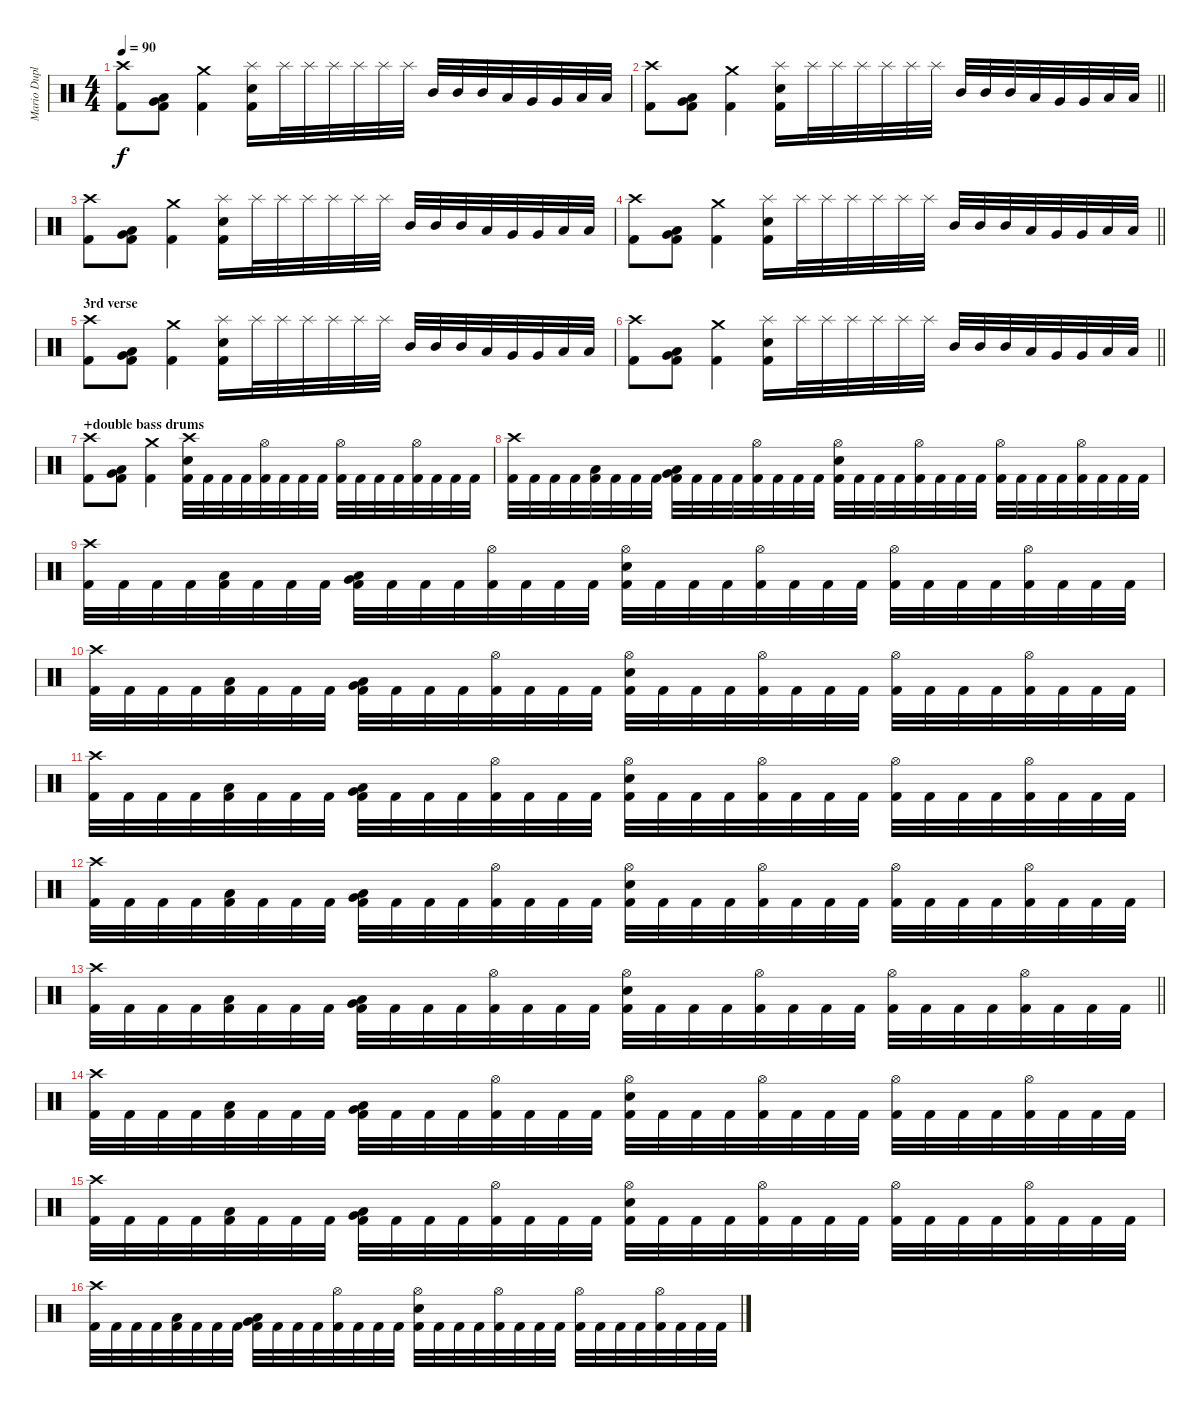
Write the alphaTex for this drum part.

\track ("Mario Duplantier" "Mario Dupl") {instrument percussion}
\staff {score}
\articulation defaults
\ts (4 4)
\tempo 90
\clef neutral
\ks c
("Crash high (hit)" "Kick (hit) 2").8{dy f} ("Very Low Tom (hit)" "Low Floor Tom (hit)" "Kick (hit) 2").8 ("Crash medium (hit)" "Kick (hit) 2").4 ("Splash (hit)" "Electric Snare (hit)" "Kick (hit) 2").16 "Splash (hit)".32 "Splash (hit)".32 "Splash (hit)".32 "Splash (hit)".32 "Splash (hit)".32 "Splash (hit)".32 "Mid Tom (hit)".32 "Mid Tom (hit)".32 "Mid Tom (hit)".32 "Low Tom (hit)".32 "Very Low Tom (hit)".32 "Very Low Tom (hit)".32 "Low Floor Tom (hit)".32 "Low Floor Tom (hit)".32 |
\barLineRight lightlight
("Crash high (hit)" "Kick (hit) 2").8 ("Very Low Tom (hit)" "Low Floor Tom (hit)" "Kick (hit) 2").8 ("Crash medium (hit)" "Kick (hit) 2").4 ("Splash (hit)" "Electric Snare (hit)" "Kick (hit) 2").16 "Splash (hit)".32 "Splash (hit)".32 "Splash (hit)".32 "Splash (hit)".32 "Splash (hit)".32 "Splash (hit)".32 "Mid Tom (hit)".32 "Mid Tom (hit)".32 "Mid Tom (hit)".32 "Low Tom (hit)".32 "Very Low Tom (hit)".32 "Very Low Tom (hit)".32 "Low Floor Tom (hit)".32 "Low Floor Tom (hit)".32 |
("Crash high (hit)" "Kick (hit) 2").8 ("Very Low Tom (hit)" "Low Floor Tom (hit)" "Kick (hit) 2").8 ("Crash medium (hit)" "Kick (hit) 2").4 ("Splash (hit)" "Electric Snare (hit)" "Kick (hit) 2").16 "Splash (hit)".32 "Splash (hit)".32 "Splash (hit)".32 "Splash (hit)".32 "Splash (hit)".32 "Splash (hit)".32 "Mid Tom (hit)".32 "Mid Tom (hit)".32 "Mid Tom (hit)".32 "Low Tom (hit)".32 "Very Low Tom (hit)".32 "Very Low Tom (hit)".32 "Low Floor Tom (hit)".32 "Low Floor Tom (hit)".32 |
\barLineRight lightlight
("Crash high (hit)" "Kick (hit) 2").8 ("Very Low Tom (hit)" "Low Floor Tom (hit)" "Kick (hit) 2").8 ("Crash medium (hit)" "Kick (hit) 2").4 ("Splash (hit)" "Electric Snare (hit)" "Kick (hit) 2").16 "Splash (hit)".32 "Splash (hit)".32 "Splash (hit)".32 "Splash (hit)".32 "Splash (hit)".32 "Splash (hit)".32 "Mid Tom (hit)".32 "Mid Tom (hit)".32 "Mid Tom (hit)".32 "Low Tom (hit)".32 "Very Low Tom (hit)".32 "Very Low Tom (hit)".32 "Low Floor Tom (hit)".32 "Low Floor Tom (hit)".32 |
\section ("" "3rd verse")
("Crash high (hit)" "Kick (hit) 2").8 ("Very Low Tom (hit)" "Low Floor Tom (hit)" "Kick (hit) 2").8 ("Crash medium (hit)" "Kick (hit) 2").4 ("Splash (hit)" "Electric Snare (hit)" "Kick (hit) 2").16 "Splash (hit)".32 "Splash (hit)".32 "Splash (hit)".32 "Splash (hit)".32 "Splash (hit)".32 "Splash (hit)".32 "Mid Tom (hit)".32 "Mid Tom (hit)".32 "Mid Tom (hit)".32 "Low Tom (hit)".32 "Very Low Tom (hit)".32 "Very Low Tom (hit)".32 "Low Floor Tom (hit)".32 "Low Floor Tom (hit)".32 |
\barLineRight lightlight
("Crash high (hit)" "Kick (hit) 2").8 ("Very Low Tom (hit)" "Low Floor Tom (hit)" "Kick (hit) 2").8 ("Crash medium (hit)" "Kick (hit) 2").4 ("Splash (hit)" "Electric Snare (hit)" "Kick (hit) 2").16 "Splash (hit)".32 "Splash (hit)".32 "Splash (hit)".32 "Splash (hit)".32 "Splash (hit)".32 "Splash (hit)".32 "Mid Tom (hit)".32 "Mid Tom (hit)".32 "Mid Tom (hit)".32 "Low Tom (hit)".32 "Very Low Tom (hit)".32 "Very Low Tom (hit)".32 "Low Floor Tom (hit)".32 "Low Floor Tom (hit)".32 |
\section ("" "+double bass drums")
("Crash high (hit)" "Kick (hit) 2").8 ("Very Low Tom (hit)" "Low Floor Tom (hit)" "Kick (hit) 2").8 ("Crash medium (hit)" "Kick (hit) 2").4 ("Crash high (hit)" "Electric Snare (hit)" "Kick (hit) 2").32 "Kick (hit) 2".32 "Kick (hit) 2".32 "Kick (hit) 2".32 ("Hi-Hat (open)" "Kick (hit) 2").32 "Kick (hit) 2".32 "Kick (hit) 2".32 "Kick (hit) 2".32 ("Hi-Hat (open)" "Kick (hit) 2").32 "Kick (hit) 2".32 "Kick (hit) 2".32 "Kick (hit) 2".32 ("Hi-Hat (open)" "Kick (hit) 2").32 "Kick (hit) 2".32 "Kick (hit) 2".32 "Kick (hit) 2".32 |
("Crash high (hit)" "Kick (hit) 2").32 "Kick (hit) 2".32 "Kick (hit) 2".32 "Kick (hit) 2".32 ("Low Tom (hit)" "Kick (hit) 2").32 "Kick (hit) 2".32 "Kick (hit) 2".32 "Kick (hit) 2".32 ("Very Low Tom (hit)" "Low Floor Tom (hit)" "Kick (hit) 2").32 "Kick (hit) 2".32 "Kick (hit) 2".32 "Kick (hit) 2".32 ("Hi-Hat (open)" "Kick (hit) 2").32 "Kick (hit) 2".32 "Kick (hit) 2".32 "Kick (hit) 2".32 ("Hi-Hat (open)" "Electric Snare (hit)" "Kick (hit) 2").32 "Kick (hit) 2".32 "Kick (hit) 2".32 "Kick (hit) 2".32 ("Hi-Hat (open)" "Kick (hit) 2").32 "Kick (hit) 2".32 "Kick (hit) 2".32 "Kick (hit) 2".32 ("Hi-Hat (open)" "Kick (hit) 2").32 "Kick (hit) 2".32 "Kick (hit) 2".32 "Kick (hit) 2".32 ("Hi-Hat (open)" "Kick (hit) 2").32 "Kick (hit) 2".32 "Kick (hit) 2".32 "Kick (hit) 2".32 |
("Crash high (hit)" "Kick (hit) 2").32 "Kick (hit) 2".32 "Kick (hit) 2".32 "Kick (hit) 2".32 ("Low Tom (hit)" "Kick (hit) 2").32 "Kick (hit) 2".32 "Kick (hit) 2".32 "Kick (hit) 2".32 ("Very Low Tom (hit)" "Low Floor Tom (hit)" "Kick (hit) 2").32 "Kick (hit) 2".32 "Kick (hit) 2".32 "Kick (hit) 2".32 ("Hi-Hat (open)" "Kick (hit) 2").32 "Kick (hit) 2".32 "Kick (hit) 2".32 "Kick (hit) 2".32 ("Hi-Hat (open)" "Electric Snare (hit)" "Kick (hit) 2").32 "Kick (hit) 2".32 "Kick (hit) 2".32 "Kick (hit) 2".32 ("Hi-Hat (open)" "Kick (hit) 2").32 "Kick (hit) 2".32 "Kick (hit) 2".32 "Kick (hit) 2".32 ("Hi-Hat (open)" "Kick (hit) 2").32 "Kick (hit) 2".32 "Kick (hit) 2".32 "Kick (hit) 2".32 ("Hi-Hat (open)" "Kick (hit) 2").32 "Kick (hit) 2".32 "Kick (hit) 2".32 "Kick (hit) 2".32 |
("Crash high (hit)" "Kick (hit) 2").32 "Kick (hit) 2".32 "Kick (hit) 2".32 "Kick (hit) 2".32 ("Low Tom (hit)" "Kick (hit) 2").32 "Kick (hit) 2".32 "Kick (hit) 2".32 "Kick (hit) 2".32 ("Very Low Tom (hit)" "Low Floor Tom (hit)" "Kick (hit) 2").32 "Kick (hit) 2".32 "Kick (hit) 2".32 "Kick (hit) 2".32 ("Hi-Hat (open)" "Kick (hit) 2").32 "Kick (hit) 2".32 "Kick (hit) 2".32 "Kick (hit) 2".32 ("Hi-Hat (open)" "Electric Snare (hit)" "Kick (hit) 2").32 "Kick (hit) 2".32 "Kick (hit) 2".32 "Kick (hit) 2".32 ("Hi-Hat (open)" "Kick (hit) 2").32 "Kick (hit) 2".32 "Kick (hit) 2".32 "Kick (hit) 2".32 ("Hi-Hat (open)" "Kick (hit) 2").32 "Kick (hit) 2".32 "Kick (hit) 2".32 "Kick (hit) 2".32 ("Hi-Hat (open)" "Kick (hit) 2").32 "Kick (hit) 2".32 "Kick (hit) 2".32 "Kick (hit) 2".32 |
("Crash high (hit)" "Kick (hit) 2").32 "Kick (hit) 2".32 "Kick (hit) 2".32 "Kick (hit) 2".32 ("Low Tom (hit)" "Kick (hit) 2").32 "Kick (hit) 2".32 "Kick (hit) 2".32 "Kick (hit) 2".32 ("Very Low Tom (hit)" "Low Floor Tom (hit)" "Kick (hit) 2").32 "Kick (hit) 2".32 "Kick (hit) 2".32 "Kick (hit) 2".32 ("Hi-Hat (open)" "Kick (hit) 2").32 "Kick (hit) 2".32 "Kick (hit) 2".32 "Kick (hit) 2".32 ("Hi-Hat (open)" "Electric Snare (hit)" "Kick (hit) 2").32 "Kick (hit) 2".32 "Kick (hit) 2".32 "Kick (hit) 2".32 ("Hi-Hat (open)" "Kick (hit) 2").32 "Kick (hit) 2".32 "Kick (hit) 2".32 "Kick (hit) 2".32 ("Hi-Hat (open)" "Kick (hit) 2").32 "Kick (hit) 2".32 "Kick (hit) 2".32 "Kick (hit) 2".32 ("Hi-Hat (open)" "Kick (hit) 2").32 "Kick (hit) 2".32 "Kick (hit) 2".32 "Kick (hit) 2".32 |
("Crash high (hit)" "Kick (hit) 2").32 "Kick (hit) 2".32 "Kick (hit) 2".32 "Kick (hit) 2".32 ("Low Tom (hit)" "Kick (hit) 2").32 "Kick (hit) 2".32 "Kick (hit) 2".32 "Kick (hit) 2".32 ("Very Low Tom (hit)" "Low Floor Tom (hit)" "Kick (hit) 2").32 "Kick (hit) 2".32 "Kick (hit) 2".32 "Kick (hit) 2".32 ("Hi-Hat (open)" "Kick (hit) 2").32 "Kick (hit) 2".32 "Kick (hit) 2".32 "Kick (hit) 2".32 ("Hi-Hat (open)" "Electric Snare (hit)" "Kick (hit) 2").32 "Kick (hit) 2".32 "Kick (hit) 2".32 "Kick (hit) 2".32 ("Hi-Hat (open)" "Kick (hit) 2").32 "Kick (hit) 2".32 "Kick (hit) 2".32 "Kick (hit) 2".32 ("Hi-Hat (open)" "Kick (hit) 2").32 "Kick (hit) 2".32 "Kick (hit) 2".32 "Kick (hit) 2".32 ("Hi-Hat (open)" "Kick (hit) 2").32 "Kick (hit) 2".32 "Kick (hit) 2".32 "Kick (hit) 2".32 |
\barLineRight lightlight
("Crash high (hit)" "Kick (hit) 2").32 "Kick (hit) 2".32 "Kick (hit) 2".32 "Kick (hit) 2".32 ("Low Tom (hit)" "Kick (hit) 2").32 "Kick (hit) 2".32 "Kick (hit) 2".32 "Kick (hit) 2".32 ("Very Low Tom (hit)" "Low Floor Tom (hit)" "Kick (hit) 2").32 "Kick (hit) 2".32 "Kick (hit) 2".32 "Kick (hit) 2".32 ("Hi-Hat (open)" "Kick (hit) 2").32 "Kick (hit) 2".32 "Kick (hit) 2".32 "Kick (hit) 2".32 ("Hi-Hat (open)" "Electric Snare (hit)" "Kick (hit) 2").32 "Kick (hit) 2".32 "Kick (hit) 2".32 "Kick (hit) 2".32 ("Hi-Hat (open)" "Kick (hit) 2").32 "Kick (hit) 2".32 "Kick (hit) 2".32 "Kick (hit) 2".32 ("Hi-Hat (open)" "Kick (hit) 2").32 "Kick (hit) 2".32 "Kick (hit) 2".32 "Kick (hit) 2".32 ("Hi-Hat (open)" "Kick (hit) 2").32 "Kick (hit) 2".32 "Kick (hit) 2".32 "Kick (hit) 2".32 |
("Crash high (hit)" "Kick (hit) 2").32 "Kick (hit) 2".32 "Kick (hit) 2".32 "Kick (hit) 2".32 ("Low Tom (hit)" "Kick (hit) 2").32 "Kick (hit) 2".32 "Kick (hit) 2".32 "Kick (hit) 2".32 ("Very Low Tom (hit)" "Low Floor Tom (hit)" "Kick (hit) 2").32 "Kick (hit) 2".32 "Kick (hit) 2".32 "Kick (hit) 2".32 ("Hi-Hat (open)" "Kick (hit) 2").32 "Kick (hit) 2".32 "Kick (hit) 2".32 "Kick (hit) 2".32 ("Hi-Hat (open)" "Electric Snare (hit)" "Kick (hit) 2").32 "Kick (hit) 2".32 "Kick (hit) 2".32 "Kick (hit) 2".32 ("Hi-Hat (open)" "Kick (hit) 2").32 "Kick (hit) 2".32 "Kick (hit) 2".32 "Kick (hit) 2".32 ("Hi-Hat (open)" "Kick (hit) 2").32 "Kick (hit) 2".32 "Kick (hit) 2".32 "Kick (hit) 2".32 ("Hi-Hat (open)" "Kick (hit) 2").32 "Kick (hit) 2".32 "Kick (hit) 2".32 "Kick (hit) 2".32 |
("Crash high (hit)" "Kick (hit) 2").32 "Kick (hit) 2".32 "Kick (hit) 2".32 "Kick (hit) 2".32 ("Low Tom (hit)" "Kick (hit) 2").32 "Kick (hit) 2".32 "Kick (hit) 2".32 "Kick (hit) 2".32 ("Very Low Tom (hit)" "Low Floor Tom (hit)" "Kick (hit) 2").32 "Kick (hit) 2".32 "Kick (hit) 2".32 "Kick (hit) 2".32 ("Hi-Hat (open)" "Kick (hit) 2").32 "Kick (hit) 2".32 "Kick (hit) 2".32 "Kick (hit) 2".32 ("Hi-Hat (open)" "Electric Snare (hit)" "Kick (hit) 2").32 "Kick (hit) 2".32 "Kick (hit) 2".32 "Kick (hit) 2".32 ("Hi-Hat (open)" "Kick (hit) 2").32 "Kick (hit) 2".32 "Kick (hit) 2".32 "Kick (hit) 2".32 ("Hi-Hat (open)" "Kick (hit) 2").32 "Kick (hit) 2".32 "Kick (hit) 2".32 "Kick (hit) 2".32 ("Hi-Hat (open)" "Kick (hit) 2").32 "Kick (hit) 2".32 "Kick (hit) 2".32 "Kick (hit) 2".32 |
("Crash high (hit)" "Kick (hit) 2").32 "Kick (hit) 2".32 "Kick (hit) 2".32 "Kick (hit) 2".32 ("Low Tom (hit)" "Kick (hit) 2").32 "Kick (hit) 2".32 "Kick (hit) 2".32 "Kick (hit) 2".32 ("Very Low Tom (hit)" "Low Floor Tom (hit)" "Kick (hit) 2").32 "Kick (hit) 2".32 "Kick (hit) 2".32 "Kick (hit) 2".32 ("Hi-Hat (open)" "Kick (hit) 2").32 "Kick (hit) 2".32 "Kick (hit) 2".32 "Kick (hit) 2".32 ("Hi-Hat (open)" "Electric Snare (hit)" "Kick (hit) 2").32 "Kick (hit) 2".32 "Kick (hit) 2".32 "Kick (hit) 2".32 ("Hi-Hat (open)" "Kick (hit) 2").32 "Kick (hit) 2".32 "Kick (hit) 2".32 "Kick (hit) 2".32 ("Hi-Hat (open)" "Kick (hit) 2").32 "Kick (hit) 2".32 "Kick (hit) 2".32 "Kick (hit) 2".32 ("Hi-Hat (open)" "Kick (hit) 2").32 "Kick (hit) 2".32 "Kick (hit) 2".32 "Kick (hit) 2".32
